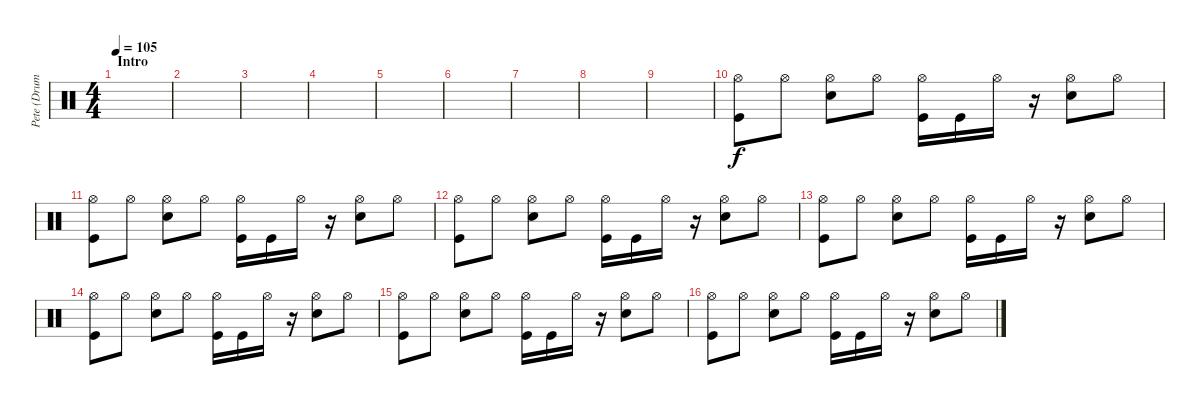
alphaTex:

\track ("Pete (Drums)" "Pete (Drum") {instrument percussion}
\staff {score}
\articulation defaults
\ts (4 4)
\section ("" "Intro")
\tempo 105
\clef neutral
\ks c
|
|
|
|
|
|
|
|
|
("Hi-Hat (open)" "Kick (hit)").8 "Hi-Hat (open)".8 ("Hi-Hat (open)" "Snare (hit) 2").8 "Hi-Hat (open)".8 ("Hi-Hat (open)" "Kick (hit)").16 "Kick (hit)".16 "Hi-Hat (open)".16 r.16 ("Hi-Hat (open)" "Snare (hit) 2").8 "Hi-Hat (open)".8 |
("Hi-Hat (open)" "Kick (hit)").8 "Hi-Hat (open)".8 ("Hi-Hat (open)" "Snare (hit) 2").8 "Hi-Hat (open)".8 ("Hi-Hat (open)" "Kick (hit)").16 "Kick (hit)".16 "Hi-Hat (open)".16 r.16 ("Hi-Hat (open)" "Snare (hit) 2").8 "Hi-Hat (open)".8 |
("Hi-Hat (open)" "Kick (hit)").8 "Hi-Hat (open)".8 ("Hi-Hat (open)" "Snare (hit) 2").8 "Hi-Hat (open)".8 ("Hi-Hat (open)" "Kick (hit)").16 "Kick (hit)".16 "Hi-Hat (open)".16 r.16 ("Hi-Hat (open)" "Snare (hit) 2").8 "Hi-Hat (open)".8 |
("Hi-Hat (open)" "Kick (hit)").8 "Hi-Hat (open)".8 ("Hi-Hat (open)" "Snare (hit) 2").8 "Hi-Hat (open)".8 ("Hi-Hat (open)" "Kick (hit)").16 "Kick (hit)".16 "Hi-Hat (open)".16 r.16 ("Hi-Hat (open)" "Snare (hit) 2").8 "Hi-Hat (open)".8 |
("Hi-Hat (open)" "Kick (hit)").8 "Hi-Hat (open)".8 ("Hi-Hat (open)" "Snare (hit) 2").8 "Hi-Hat (open)".8 ("Hi-Hat (open)" "Kick (hit)").16 "Kick (hit)".16 "Hi-Hat (open)".16 r.16 ("Hi-Hat (open)" "Snare (hit) 2").8 "Hi-Hat (open)".8 |
("Hi-Hat (open)" "Kick (hit)").8 "Hi-Hat (open)".8 ("Hi-Hat (open)" "Snare (hit) 2").8 "Hi-Hat (open)".8 ("Hi-Hat (open)" "Kick (hit)").16 "Kick (hit)".16 "Hi-Hat (open)".16 r.16 ("Hi-Hat (open)" "Snare (hit) 2").8 "Hi-Hat (open)".8 |
("Hi-Hat (open)" "Kick (hit)").8 "Hi-Hat (open)".8 ("Hi-Hat (open)" "Snare (hit) 2").8 "Hi-Hat (open)".8 ("Hi-Hat (open)" "Kick (hit)").16 "Kick (hit)".16 "Hi-Hat (open)".16 r.16 ("Hi-Hat (open)" "Snare (hit) 2").8 "Hi-Hat (open)".8
